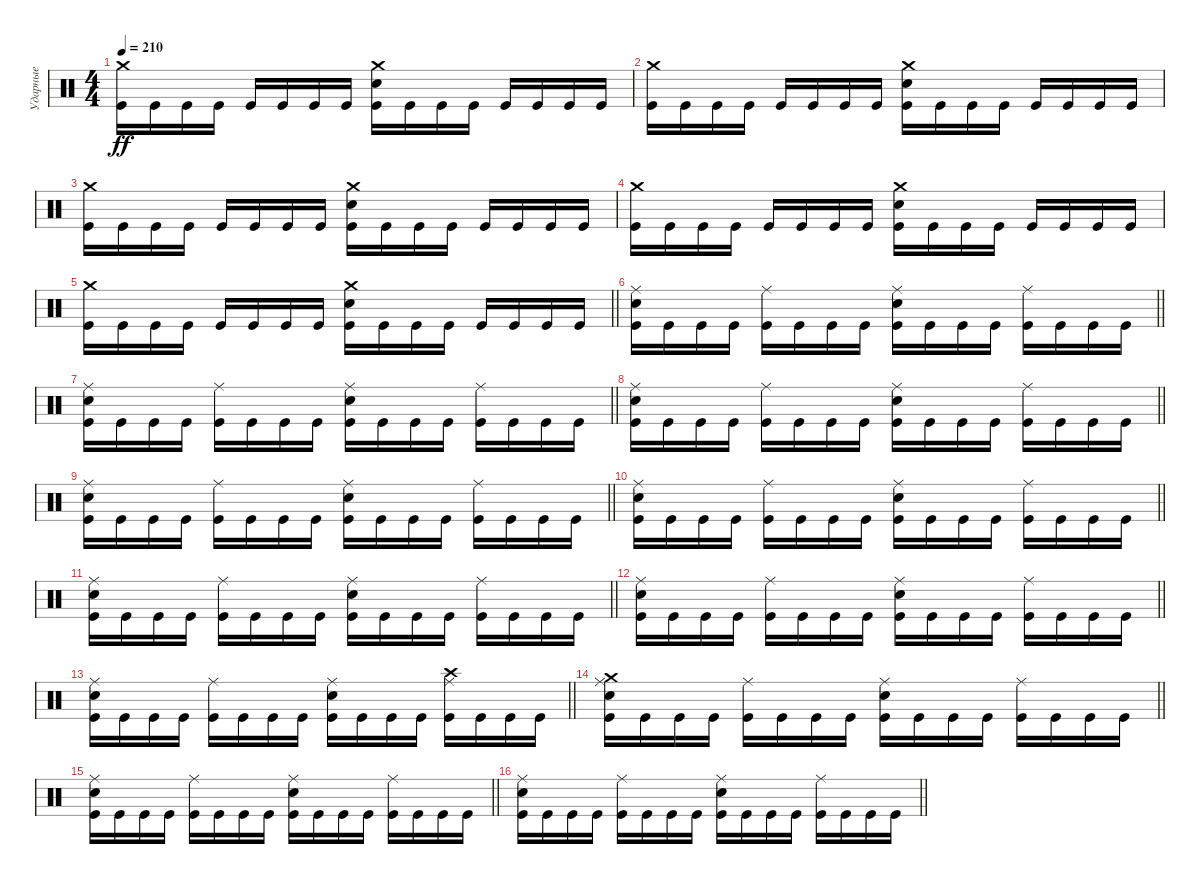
\track ("Ударные" "Ударные") {instrument percussion}
\staff {score}
\articulation defaults
\ts (4 4)
\tempo 210
\clef neutral
\ks c
("Crash medium (hit)" "Kick (hit)").16{dy ff} "Kick (hit)".16 "Kick (hit)".16 "Kick (hit)".16 "Kick (hit)".16 "Kick (hit)".16 "Kick (hit)".16 "Kick (hit)".16 ("Crash medium (hit)" "Electric Snare (hit)" "Kick (hit)").16 "Kick (hit)".16 "Kick (hit)".16 "Kick (hit)".16 "Kick (hit)".16 "Kick (hit)".16 "Kick (hit)".16 "Kick (hit)".16 |
("Crash medium (hit)" "Kick (hit)").16 "Kick (hit)".16 "Kick (hit)".16 "Kick (hit)".16 "Kick (hit)".16 "Kick (hit)".16 "Kick (hit)".16 "Kick (hit)".16 ("Crash medium (hit)" "Electric Snare (hit)" "Kick (hit)").16 "Kick (hit)".16 "Kick (hit)".16 "Kick (hit)".16 "Kick (hit)".16 "Kick (hit)".16 "Kick (hit)".16 "Kick (hit)".16 |
("Crash medium (hit)" "Kick (hit)").16 "Kick (hit)".16 "Kick (hit)".16 "Kick (hit)".16 "Kick (hit)".16 "Kick (hit)".16 "Kick (hit)".16 "Kick (hit)".16 ("Crash medium (hit)" "Electric Snare (hit)" "Kick (hit)").16 "Kick (hit)".16 "Kick (hit)".16 "Kick (hit)".16 "Kick (hit)".16 "Kick (hit)".16 "Kick (hit)".16 "Kick (hit)".16 |
("Crash medium (hit)" "Kick (hit)").16 "Kick (hit)".16 "Kick (hit)".16 "Kick (hit)".16 "Kick (hit)".16 "Kick (hit)".16 "Kick (hit)".16 "Kick (hit)".16 ("Crash medium (hit)" "Electric Snare (hit)" "Kick (hit)").16 "Kick (hit)".16 "Kick (hit)".16 "Kick (hit)".16 "Kick (hit)".16 "Kick (hit)".16 "Kick (hit)".16 "Kick (hit)".16 |
\barLineRight lightlight
("Crash medium (hit)" "Kick (hit)").16 "Kick (hit)".16 "Kick (hit)".16 "Kick (hit)".16 "Kick (hit)".16 "Kick (hit)".16 "Kick (hit)".16 "Kick (hit)".16 ("Crash medium (hit)" "Electric Snare (hit)" "Kick (hit)").16 "Kick (hit)".16 "Kick (hit)".16 "Kick (hit)".16 "Kick (hit)".16 "Kick (hit)".16 "Kick (hit)".16 "Kick (hit)".16 |
\section ("" "")
\barLineRight lightlight
("Ride (middle)" "Electric Snare (hit)" "Kick (hit)").16 "Kick (hit)".16 "Kick (hit)".16 "Kick (hit)".16 ("Ride (middle)" "Kick (hit)").16 "Kick (hit)".16 "Kick (hit)".16 "Kick (hit)".16 ("Ride (middle)" "Electric Snare (hit)" "Kick (hit)").16 "Kick (hit)".16 "Kick (hit)".16 "Kick (hit)".16 ("Ride (middle)" "Kick (hit)").16 "Kick (hit)".16 "Kick (hit)".16 "Kick (hit)".16 |
\barLineRight lightlight
("Ride (middle)" "Electric Snare (hit)" "Kick (hit)").16 "Kick (hit)".16 "Kick (hit)".16 "Kick (hit)".16 ("Ride (middle)" "Kick (hit)").16 "Kick (hit)".16 "Kick (hit)".16 "Kick (hit)".16 ("Ride (middle)" "Electric Snare (hit)" "Kick (hit)").16 "Kick (hit)".16 "Kick (hit)".16 "Kick (hit)".16 ("Ride (middle)" "Kick (hit)").16 "Kick (hit)".16 "Kick (hit)".16 "Kick (hit)".16 |
\barLineRight lightlight
("Ride (middle)" "Electric Snare (hit)" "Kick (hit)").16 "Kick (hit)".16 "Kick (hit)".16 "Kick (hit)".16 ("Ride (middle)" "Kick (hit)").16 "Kick (hit)".16 "Kick (hit)".16 "Kick (hit)".16 ("Ride (middle)" "Electric Snare (hit)" "Kick (hit)").16 "Kick (hit)".16 "Kick (hit)".16 "Kick (hit)".16 ("Ride (middle)" "Kick (hit)").16 "Kick (hit)".16 "Kick (hit)".16 "Kick (hit)".16 |
\barLineRight lightlight
("Ride (middle)" "Electric Snare (hit)" "Kick (hit)").16 "Kick (hit)".16 "Kick (hit)".16 "Kick (hit)".16 ("Ride (middle)" "Kick (hit)").16 "Kick (hit)".16 "Kick (hit)".16 "Kick (hit)".16 ("Ride (middle)" "Electric Snare (hit)" "Kick (hit)").16 "Kick (hit)".16 "Kick (hit)".16 "Kick (hit)".16 ("Ride (middle)" "Kick (hit)").16 "Kick (hit)".16 "Kick (hit)".16 "Kick (hit)".16 |
\barLineRight lightlight
("Ride (middle)" "Electric Snare (hit)" "Kick (hit)").16 "Kick (hit)".16 "Kick (hit)".16 "Kick (hit)".16 ("Ride (middle)" "Kick (hit)").16 "Kick (hit)".16 "Kick (hit)".16 "Kick (hit)".16 ("Ride (middle)" "Electric Snare (hit)" "Kick (hit)").16 "Kick (hit)".16 "Kick (hit)".16 "Kick (hit)".16 ("Ride (middle)" "Kick (hit)").16 "Kick (hit)".16 "Kick (hit)".16 "Kick (hit)".16 |
\barLineRight lightlight
("Ride (middle)" "Electric Snare (hit)" "Kick (hit)").16 "Kick (hit)".16 "Kick (hit)".16 "Kick (hit)".16 ("Ride (middle)" "Kick (hit)").16 "Kick (hit)".16 "Kick (hit)".16 "Kick (hit)".16 ("Ride (middle)" "Electric Snare (hit)" "Kick (hit)").16 "Kick (hit)".16 "Kick (hit)".16 "Kick (hit)".16 ("Ride (middle)" "Kick (hit)").16 "Kick (hit)".16 "Kick (hit)".16 "Kick (hit)".16 |
\barLineRight lightlight
("Ride (middle)" "Electric Snare (hit)" "Kick (hit)").16 "Kick (hit)".16 "Kick (hit)".16 "Kick (hit)".16 ("Ride (middle)" "Kick (hit)").16 "Kick (hit)".16 "Kick (hit)".16 "Kick (hit)".16 ("Ride (middle)" "Electric Snare (hit)" "Kick (hit)").16 "Kick (hit)".16 "Kick (hit)".16 "Kick (hit)".16 ("Ride (middle)" "Kick (hit)").16 "Kick (hit)".16 "Kick (hit)".16 "Kick (hit)".16 |
\barLineRight lightlight
("Ride (middle)" "Electric Snare (hit)" "Kick (hit)").16 "Kick (hit)".16 "Kick (hit)".16 "Kick (hit)".16 ("Ride (middle)" "Kick (hit)").16 "Kick (hit)".16 "Kick (hit)".16 "Kick (hit)".16 ("Ride (middle)" "Electric Snare (hit)" "Kick (hit)").16 "Kick (hit)".16 "Kick (hit)".16 "Kick (hit)".16 ("Crash high (hit)" "Ride (middle)" "Kick (hit)").16 "Kick (hit)".16 "Kick (hit)".16 "Kick (hit)".16 |
\section ("" "")
\barLineRight lightlight
("Crash medium (hit)" "Ride (middle)" "Electric Snare (hit)" "Kick (hit)").16 "Kick (hit)".16 "Kick (hit)".16 "Kick (hit)".16 ("Ride (middle)" "Kick (hit)").16 "Kick (hit)".16 "Kick (hit)".16 "Kick (hit)".16 ("Ride (middle)" "Electric Snare (hit)" "Kick (hit)").16 "Kick (hit)".16 "Kick (hit)".16 "Kick (hit)".16 ("Ride (middle)" "Kick (hit)").16 "Kick (hit)".16 "Kick (hit)".16 "Kick (hit)".16 |
\barLineRight lightlight
("Ride (middle)" "Electric Snare (hit)" "Kick (hit)").16 "Kick (hit)".16 "Kick (hit)".16 "Kick (hit)".16 ("Ride (middle)" "Kick (hit)").16 "Kick (hit)".16 "Kick (hit)".16 "Kick (hit)".16 ("Ride (middle)" "Electric Snare (hit)" "Kick (hit)").16 "Kick (hit)".16 "Kick (hit)".16 "Kick (hit)".16 ("Ride (middle)" "Kick (hit)").16 "Kick (hit)".16 "Kick (hit)".16 "Kick (hit)".16 |
\barLineRight lightlight
("Ride (middle)" "Electric Snare (hit)" "Kick (hit)").16 "Kick (hit)".16 "Kick (hit)".16 "Kick (hit)".16 ("Ride (middle)" "Kick (hit)").16 "Kick (hit)".16 "Kick (hit)".16 "Kick (hit)".16 ("Ride (middle)" "Electric Snare (hit)" "Kick (hit)").16 "Kick (hit)".16 "Kick (hit)".16 "Kick (hit)".16 ("Ride (middle)" "Kick (hit)").16 "Kick (hit)".16 "Kick (hit)".16 "Kick (hit)".16
